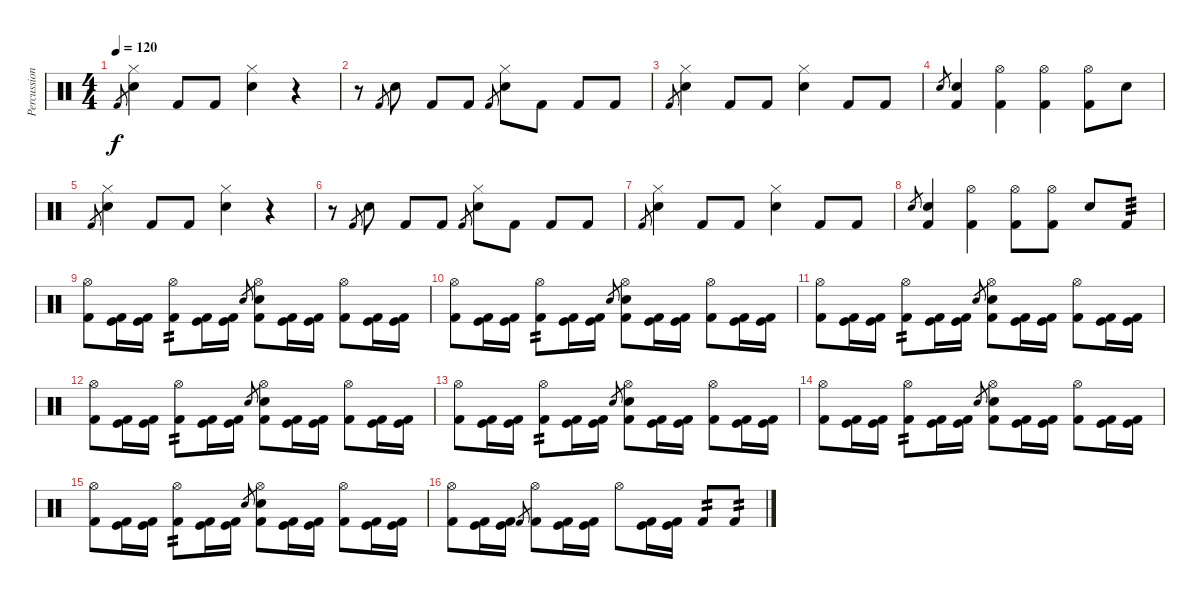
\track ("Percussion" "Percussion") {instrument percussion}
\staff {score}
\articulation defaults
\ts (4 4)
\tempo 120
\clef neutral
\ks c "Kick (hit) 2".8{gr dy f}
("Hi-Hat (closed)" "Snare (hit) 2").4 "Kick (hit) 2".8 "Kick (hit) 2".8 ("Hi-Hat (closed)" "Snare (hit) 2").4 r.4 |
r.8 "Kick (hit) 2".8{gr} "Snare (hit) 2".8 "Kick (hit) 2".8 "Kick (hit) 2".8 "Kick (hit) 2".8{gr} ("Hi-Hat (closed)" "Snare (hit) 2").8 "Kick (hit) 2".8 "Kick (hit) 2".8 "Kick (hit) 2".8 |
"Kick (hit) 2".8{gr} ("Hi-Hat (closed)" "Snare (hit) 2").4 "Kick (hit) 2".8 "Kick (hit) 2".8 ("Hi-Hat (closed)" "Snare (hit) 2").4 "Kick (hit) 2".8 "Kick (hit) 2".8 |
"Snare (hit) 2".8{gr} ("Snare (hit) 2" "Kick (hit) 2").4 ("Hi-Hat (open)" "Kick (hit) 2").4 ("Hi-Hat (open)" "Kick (hit) 2").4 ("Hi-Hat (open)" "Kick (hit) 2").8 "Snare (hit) 2".8 |
"Kick (hit) 2".8{gr} ("Hi-Hat (closed)" "Snare (hit) 2").4 "Kick (hit) 2".8 "Kick (hit) 2".8 ("Hi-Hat (closed)" "Snare (hit) 2").4 r.4 |
r.8 "Kick (hit) 2".8{gr} "Snare (hit) 2".8 "Kick (hit) 2".8 "Kick (hit) 2".8 "Kick (hit) 2".8{gr} ("Hi-Hat (closed)" "Snare (hit) 2").8 "Kick (hit) 2".8 "Kick (hit) 2".8 "Kick (hit) 2".8 |
"Kick (hit) 2".8{gr} ("Hi-Hat (closed)" "Snare (hit) 2").4 "Kick (hit) 2".8 "Kick (hit) 2".8 ("Hi-Hat (closed)" "Snare (hit) 2").4 "Kick (hit) 2".8 "Kick (hit) 2".8 |
"Snare (hit) 2".8{gr} ("Snare (hit) 2" "Kick (hit) 2").4 ("Hi-Hat (open)" "Kick (hit) 2").4 ("Hi-Hat (open)" "Kick (hit) 2").8 ("Hi-Hat (open)" "Kick (hit) 2").8 "Snare (hit) 2".8 "Kick (hit) 2".8{tp 3} |
("Hi-Hat (open)" "Kick (hit) 2").8 ("Kick (hit) 2" "Kick (hit)").16 ("Kick (hit) 2" "Kick (hit)").16 ("Hi-Hat (open)" "Kick (hit) 2").8{tp 2} ("Kick (hit) 2" "Kick (hit)").16 ("Kick (hit) 2" "Kick (hit)").16 "Snare (hit) 2".8{gr} ("Hi-Hat (open)" "Snare (hit) 2" "Kick (hit) 2").8 ("Kick (hit) 2" "Kick (hit)").16 ("Kick (hit) 2" "Kick (hit)").16 ("Hi-Hat (open)" "Kick (hit) 2").8 ("Kick (hit) 2" "Kick (hit)").16 ("Kick (hit) 2" "Kick (hit)").16 |
("Hi-Hat (open)" "Kick (hit) 2").8 ("Kick (hit) 2" "Kick (hit)").16 ("Kick (hit) 2" "Kick (hit)").16 ("Hi-Hat (open)" "Kick (hit) 2").8{tp 2} ("Kick (hit) 2" "Kick (hit)").16 ("Kick (hit) 2" "Kick (hit)").16 "Snare (hit) 2".8{gr} ("Hi-Hat (open)" "Snare (hit) 2" "Kick (hit) 2").8 ("Kick (hit) 2" "Kick (hit)").16 ("Kick (hit) 2" "Kick (hit)").16 ("Hi-Hat (open)" "Kick (hit) 2").8 ("Kick (hit) 2" "Kick (hit)").16 ("Kick (hit) 2" "Kick (hit)").16 |
("Hi-Hat (open)" "Kick (hit) 2").8 ("Kick (hit) 2" "Kick (hit)").16 ("Kick (hit) 2" "Kick (hit)").16 ("Hi-Hat (open)" "Kick (hit) 2").8{tp 2} ("Kick (hit) 2" "Kick (hit)").16 ("Kick (hit) 2" "Kick (hit)").16 "Snare (hit) 2".8{gr} ("Hi-Hat (open)" "Snare (hit) 2" "Kick (hit) 2").8 ("Kick (hit) 2" "Kick (hit)").16 ("Kick (hit) 2" "Kick (hit)").16 ("Hi-Hat (open)" "Kick (hit) 2").8 ("Kick (hit) 2" "Kick (hit)").16 ("Kick (hit) 2" "Kick (hit)").16 |
("Hi-Hat (open)" "Kick (hit) 2").8 ("Kick (hit) 2" "Kick (hit)").16 ("Kick (hit) 2" "Kick (hit)").16 ("Hi-Hat (open)" "Kick (hit) 2").8{tp 2} ("Kick (hit) 2" "Kick (hit)").16 ("Kick (hit) 2" "Kick (hit)").16 "Snare (hit) 2".8{gr} ("Hi-Hat (open)" "Snare (hit) 2" "Kick (hit) 2").8 ("Kick (hit) 2" "Kick (hit)").16 ("Kick (hit) 2" "Kick (hit)").16 ("Hi-Hat (open)" "Kick (hit) 2").8 ("Kick (hit) 2" "Kick (hit)").16 ("Kick (hit) 2" "Kick (hit)").16 |
("Hi-Hat (open)" "Kick (hit) 2").8 ("Kick (hit) 2" "Kick (hit)").16 ("Kick (hit) 2" "Kick (hit)").16 ("Hi-Hat (open)" "Kick (hit) 2").8{tp 2} ("Kick (hit) 2" "Kick (hit)").16 ("Kick (hit) 2" "Kick (hit)").16 "Snare (hit) 2".8{gr} ("Hi-Hat (open)" "Snare (hit) 2" "Kick (hit) 2").8 ("Kick (hit) 2" "Kick (hit)").16 ("Kick (hit) 2" "Kick (hit)").16 ("Hi-Hat (open)" "Kick (hit) 2").8 ("Kick (hit) 2" "Kick (hit)").16 ("Kick (hit) 2" "Kick (hit)").16 |
("Hi-Hat (open)" "Kick (hit) 2").8 ("Kick (hit) 2" "Kick (hit)").16 ("Kick (hit) 2" "Kick (hit)").16 ("Hi-Hat (open)" "Kick (hit) 2").8{tp 2} ("Kick (hit) 2" "Kick (hit)").16 ("Kick (hit) 2" "Kick (hit)").16 "Snare (hit) 2".8{gr} ("Hi-Hat (open)" "Snare (hit) 2" "Kick (hit) 2").8 ("Kick (hit) 2" "Kick (hit)").16 ("Kick (hit) 2" "Kick (hit)").16 ("Hi-Hat (open)" "Kick (hit) 2").8 ("Kick (hit) 2" "Kick (hit)").16 ("Kick (hit) 2" "Kick (hit)").16 |
("Hi-Hat (open)" "Kick (hit) 2").8 ("Kick (hit) 2" "Kick (hit)").16 ("Kick (hit) 2" "Kick (hit)").16 ("Hi-Hat (open)" "Kick (hit) 2").8{tp 2} ("Kick (hit) 2" "Kick (hit)").16 ("Kick (hit) 2" "Kick (hit)").16 "Snare (hit) 2".8{gr} ("Hi-Hat (open)" "Snare (hit) 2" "Kick (hit) 2").8 ("Kick (hit) 2" "Kick (hit)").16 ("Kick (hit) 2" "Kick (hit)").16 ("Hi-Hat (open)" "Kick (hit) 2").8 ("Kick (hit) 2" "Kick (hit)").16 ("Kick (hit) 2" "Kick (hit)").16 |
("Hi-Hat (open)" "Kick (hit) 2").8 ("Kick (hit) 2" "Kick (hit)").16 ("Kick (hit) 2" "Kick (hit)").16 "Kick (hit) 2".8{gr} ("Hi-Hat (open)" "Kick (hit) 2").8 ("Kick (hit) 2" "Kick (hit)").16 ("Kick (hit) 2" "Kick (hit)").16 "Hi-Hat (open)".8 ("Kick (hit) 2" "Kick (hit)").16 ("Kick (hit) 2" "Kick (hit)").16 "Kick (hit) 2".8{tp 2} "Kick (hit) 2".8{tp 2}
